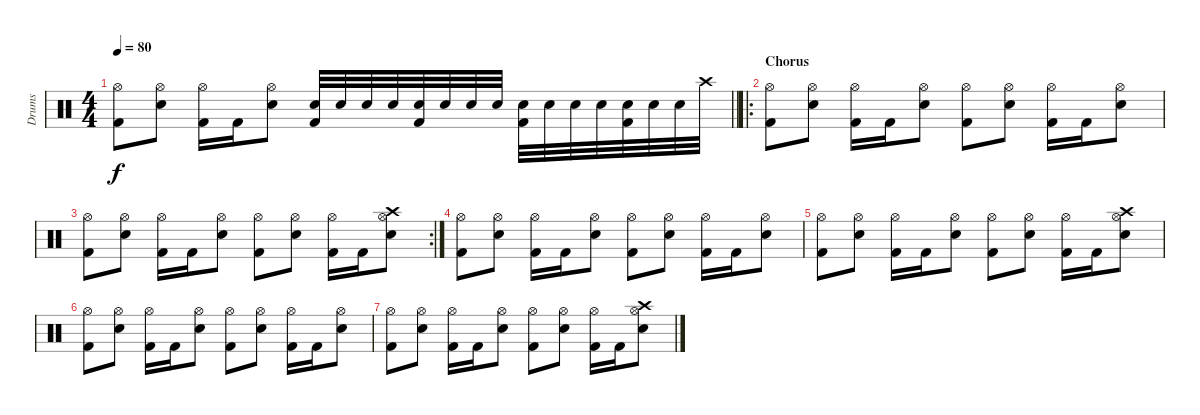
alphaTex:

\track ("Drums" "Drums") {instrument percussion}
\staff {score}
\articulation defaults
\ts (4 4)
\tempo 80
\clef neutral
\barLineRight lightlight
\ks c
("Kick (hit) 2" "Hi-Hat (open)").8{dy f} ("Snare (hit) 2" "Hi-Hat (open)").8 ("Kick (hit) 2" "Hi-Hat (open)").16 "Kick (hit) 2".16 ("Snare (hit) 2" "Hi-Hat (open)").8 ("Snare (hit) 2" "Kick (hit) 2").32 "Snare (hit) 2".32 "Snare (hit) 2".32 "Snare (hit) 2".32 ("Snare (hit) 2" "Kick (hit) 2").32 "Snare (hit) 2".32 "Snare (hit) 2".32 "Snare (hit) 2".32 ("Snare (hit) 2" "Kick (hit) 2").32 "Snare (hit) 2".32 "Snare (hit) 2".32 "Snare (hit) 2".32 ("Snare (hit) 2" "Kick (hit) 2").32 "Snare (hit) 2".32 "Snare (hit) 2".32 "Crash high (hit)".32 |
\ro
\section ("" "Chorus")
("Kick (hit) 2" "Hi-Hat (open)").8 ("Snare (hit) 2" "Hi-Hat (open)").8 ("Kick (hit) 2" "Hi-Hat (open)").16 "Kick (hit) 2".16 ("Snare (hit) 2" "Hi-Hat (open)").8 ("Kick (hit) 2" "Hi-Hat (open)").8 ("Snare (hit) 2" "Hi-Hat (open)").8 ("Kick (hit) 2" "Hi-Hat (open)").16 "Kick (hit) 2".16 ("Snare (hit) 2" "Hi-Hat (open)").8 |
\rc 2
("Kick (hit) 2" "Hi-Hat (open)").8 ("Snare (hit) 2" "Hi-Hat (open)").8 ("Kick (hit) 2" "Hi-Hat (open)").16 "Kick (hit) 2".16 ("Snare (hit) 2" "Hi-Hat (open)").8 ("Kick (hit) 2" "Hi-Hat (open)").8 ("Snare (hit) 2" "Hi-Hat (open)").8 ("Kick (hit) 2" "Hi-Hat (open)").16 "Kick (hit) 2".16 ("Snare (hit) 2" "Hi-Hat (open)" "Crash high (hit)").8 |
("Kick (hit) 2" "Hi-Hat (open)").8 ("Snare (hit) 2" "Hi-Hat (open)").8 ("Kick (hit) 2" "Hi-Hat (open)").16 "Kick (hit) 2".16 ("Snare (hit) 2" "Hi-Hat (open)").8 ("Kick (hit) 2" "Hi-Hat (open)").8 ("Snare (hit) 2" "Hi-Hat (open)").8 ("Kick (hit) 2" "Hi-Hat (open)").16 "Kick (hit) 2".16 ("Snare (hit) 2" "Hi-Hat (open)").8 |
("Kick (hit) 2" "Hi-Hat (open)").8 ("Snare (hit) 2" "Hi-Hat (open)").8 ("Kick (hit) 2" "Hi-Hat (open)").16 "Kick (hit) 2".16 ("Snare (hit) 2" "Hi-Hat (open)").8 ("Kick (hit) 2" "Hi-Hat (open)").8 ("Snare (hit) 2" "Hi-Hat (open)").8 ("Kick (hit) 2" "Hi-Hat (open)").16 "Kick (hit) 2".16 ("Snare (hit) 2" "Hi-Hat (open)" "Crash high (hit)").8 |
("Kick (hit) 2" "Hi-Hat (open)").8 ("Snare (hit) 2" "Hi-Hat (open)").8 ("Kick (hit) 2" "Hi-Hat (open)").16 "Kick (hit) 2".16 ("Snare (hit) 2" "Hi-Hat (open)").8 ("Kick (hit) 2" "Hi-Hat (open)").8 ("Snare (hit) 2" "Hi-Hat (open)").8 ("Kick (hit) 2" "Hi-Hat (open)").16 "Kick (hit) 2".16 ("Snare (hit) 2" "Hi-Hat (open)").8 |
("Kick (hit) 2" "Hi-Hat (open)").8 ("Snare (hit) 2" "Hi-Hat (open)").8 ("Kick (hit) 2" "Hi-Hat (open)").16 "Kick (hit) 2".16 ("Snare (hit) 2" "Hi-Hat (open)").8 ("Kick (hit) 2" "Hi-Hat (open)").8 ("Snare (hit) 2" "Hi-Hat (open)").8 ("Kick (hit) 2" "Hi-Hat (open)").16 "Kick (hit) 2".16 ("Snare (hit) 2" "Hi-Hat (open)" "Crash high (hit)").8
